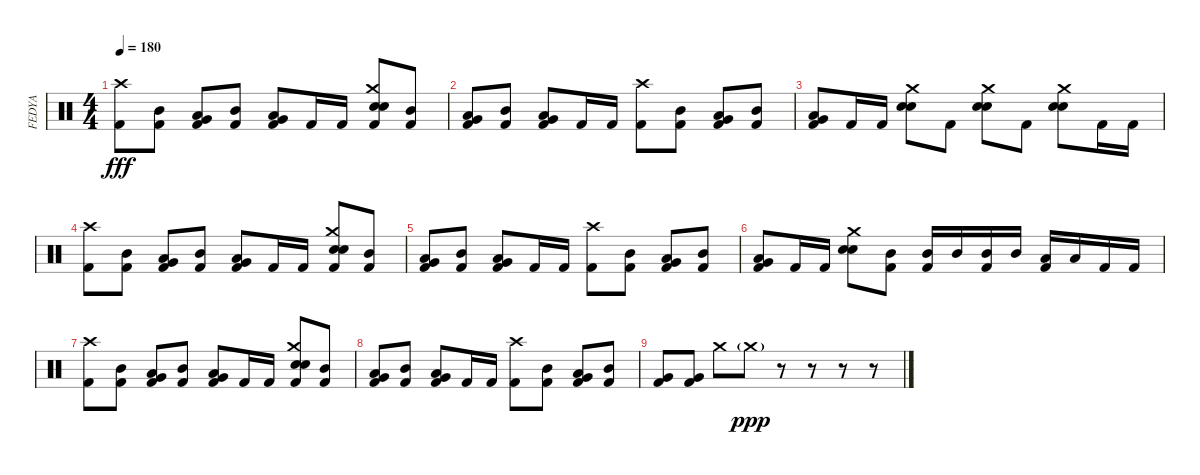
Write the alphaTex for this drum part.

\track ("FEDYA" "FEDYA") {instrument percussion}
\staff {score}
\articulation defaults
\ts (4 4)
\tempo 180
\clef neutral
\ks c
("Crash high (hit)" "Kick (hit) 2").8{dy fff} ("Mid Tom (hit)" "Kick (hit) 2").8 ("Very Low Tom (hit)" "Low Tom (hit)" "Kick (hit) 2").8 ("Mid Tom (hit)" "Kick (hit) 2").8 ("Very Low Tom (hit)" "Low Tom (hit)" "Kick (hit) 2").8 "Kick (hit) 2".16 "Kick (hit) 2".16 ("Crash medium (hit)" "Electric Snare (hit)" "Snare (hit) 2" "Kick (hit) 2").8 ("Mid Tom (hit)" "Kick (hit) 2").8 |
("Very Low Tom (hit)" "Low Tom (hit)" "Kick (hit) 2").8 ("Mid Tom (hit)" "Kick (hit) 2").8 ("Very Low Tom (hit)" "Low Tom (hit)" "Kick (hit) 2").8 "Kick (hit) 2".16 "Kick (hit) 2".16 ("Crash high (hit)" "Kick (hit) 2").8 ("Mid Tom (hit)" "Kick (hit) 2").8 ("Low Tom (hit)" "Very Low Tom (hit)" "Kick (hit) 2").8 ("Mid Tom (hit)" "Kick (hit) 2").8 |
("Low Tom (hit)" "Very Low Tom (hit)" "Kick (hit) 2").8 "Kick (hit) 2".16 "Kick (hit) 2".16 ("Crash medium (hit)" "Electric Snare (hit)" "Snare (hit) 2").8 "Kick (hit) 2".8 ("Crash medium (hit)" "Electric Snare (hit)" "Snare (hit) 2").8 "Kick (hit) 2".8 ("Crash medium (hit)" "Electric Snare (hit)" "Snare (hit) 2").8 "Kick (hit) 2".16 "Kick (hit) 2".16 |
("Crash high (hit)" "Kick (hit) 2").8 ("Mid Tom (hit)" "Kick (hit) 2").8 ("Very Low Tom (hit)" "Low Tom (hit)" "Kick (hit) 2").8 ("Mid Tom (hit)" "Kick (hit) 2").8 ("Very Low Tom (hit)" "Low Tom (hit)" "Kick (hit) 2").8 "Kick (hit) 2".16 "Kick (hit) 2".16 ("Crash medium (hit)" "Electric Snare (hit)" "Snare (hit) 2" "Kick (hit) 2").8 ("Mid Tom (hit)" "Kick (hit) 2").8 |
("Very Low Tom (hit)" "Low Tom (hit)" "Kick (hit) 2").8 ("Mid Tom (hit)" "Kick (hit) 2").8 ("Very Low Tom (hit)" "Low Tom (hit)" "Kick (hit) 2").8 "Kick (hit) 2".16 "Kick (hit) 2".16 ("Crash high (hit)" "Kick (hit) 2").8 ("Mid Tom (hit)" "Kick (hit) 2").8 ("Low Tom (hit)" "Very Low Tom (hit)" "Kick (hit) 2").8 ("Mid Tom (hit)" "Kick (hit) 2").8 |
("Low Tom (hit)" "Very Low Tom (hit)" "Kick (hit) 2").8 "Kick (hit) 2".16 "Kick (hit) 2".16 ("Crash medium (hit)" "Electric Snare (hit)" "Snare (hit) 2").8 ("Mid Tom (hit)" "Kick (hit) 2").8 ("Mid Tom (hit)" "Kick (hit) 2").16 "Mid Tom (hit)".16 ("Mid Tom (hit)" "Kick (hit) 2").16 "Mid Tom (hit)".16 ("Low Tom (hit)" "Kick (hit) 2").16 "Low Tom (hit)".16 "Kick (hit) 2".16 "Kick (hit) 2".16 |
("Crash high (hit)" "Kick (hit) 2").8 ("Mid Tom (hit)" "Kick (hit) 2").8 ("Very Low Tom (hit)" "Low Tom (hit)" "Kick (hit) 2").8 ("Mid Tom (hit)" "Kick (hit) 2").8 ("Very Low Tom (hit)" "Low Tom (hit)" "Kick (hit) 2").8 "Kick (hit) 2".16 "Kick (hit) 2".16 ("Crash medium (hit)" "Electric Snare (hit)" "Snare (hit) 2" "Kick (hit) 2").8 ("Mid Tom (hit)" "Kick (hit) 2").8 |
("Very Low Tom (hit)" "Low Tom (hit)" "Kick (hit) 2").8 ("Mid Tom (hit)" "Kick (hit) 2").8 ("Very Low Tom (hit)" "Low Tom (hit)" "Kick (hit) 2").8 "Kick (hit) 2".16 "Kick (hit) 2".16 ("Crash high (hit)" "Kick (hit) 2").8 ("Mid Tom (hit)" "Kick (hit) 2").8 ("Low Tom (hit)" "Very Low Tom (hit)" "Kick (hit) 2").8 ("Mid Tom (hit)" "Kick (hit) 2").8 |
("Very Low Tom (hit)" "Kick (hit) 2").8 ("Very Low Tom (hit)" "Kick (hit) 2").8 "Crash medium (hit)".8 "Crash medium (hit)"{g}.8{dy ppp} r.8 r.8 r.8 r.8
